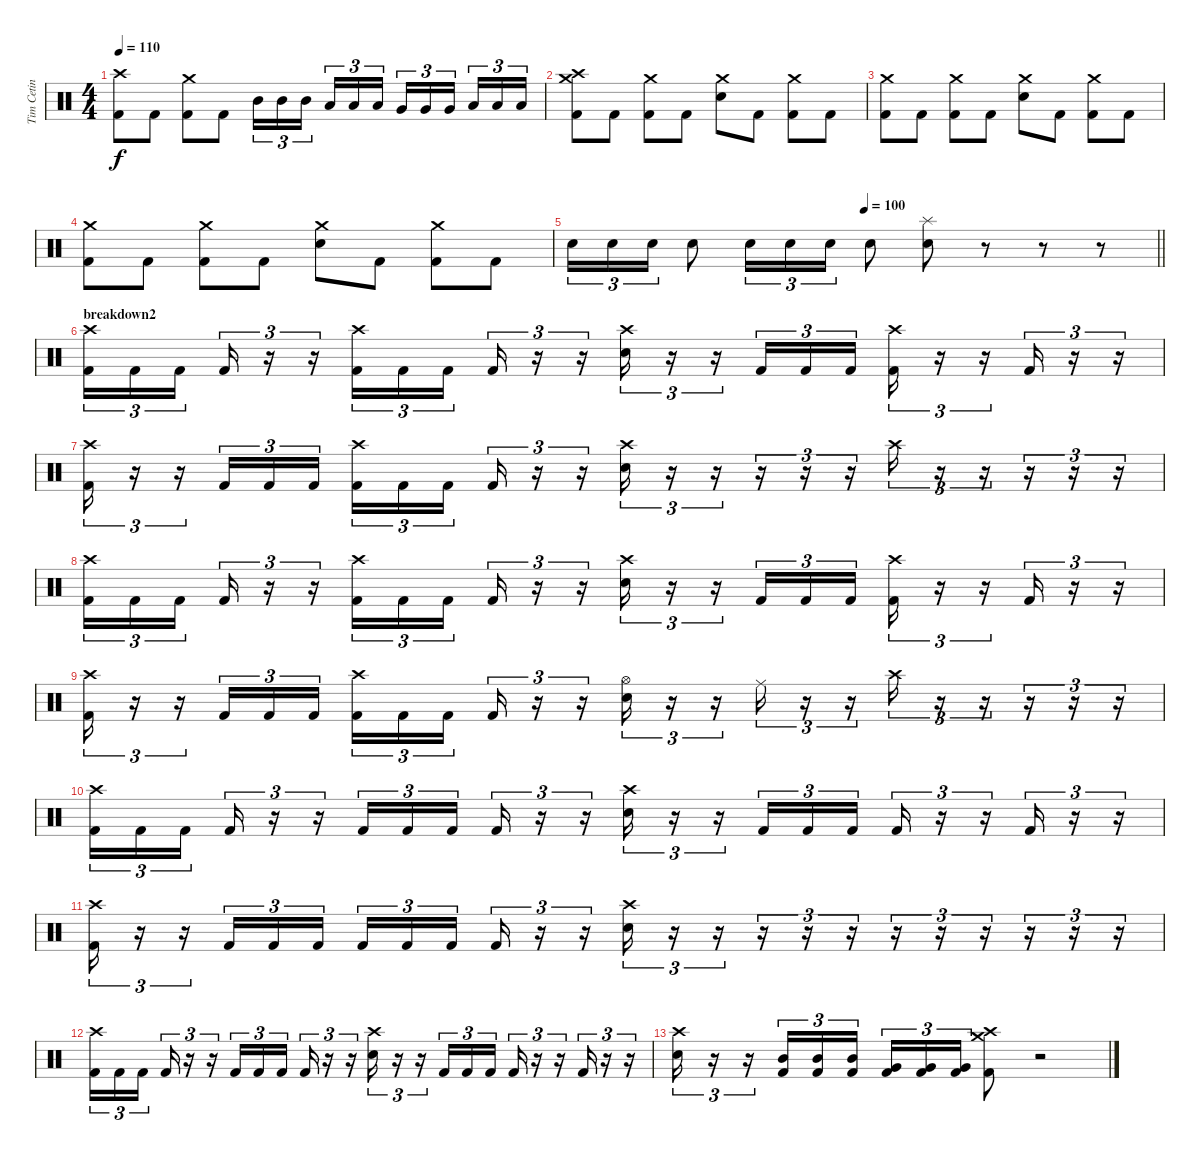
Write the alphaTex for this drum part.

\track ("Tim Cetin" "Tim Cetin") {instrument percussion}
\staff {score}
\articulation defaults
\ts (4 4)
\tempo 110
\clef neutral
\ks c
("Crash high (hit)" "Kick (hit) 2").8{dy f} "Kick (hit) 2".8 ("Crash medium (hit)" "Kick (hit) 2").8 "Kick (hit) 2".8 "Mid Tom (hit)".16{tu (3 2)} "Mid Tom (hit)".16{tu (3 2)} "Mid Tom (hit)".16{tu (3 2) beam splitsecondary} "Low Tom (hit)".16{tu (3 2)} "Low Tom (hit)".16{tu (3 2)} "Low Tom (hit)".16{tu (3 2)} "Very Low Tom (hit)".16{tu (3 2)} "Very Low Tom (hit)".16{tu (3 2)} "Very Low Tom (hit)".16{tu (3 2) beam splitsecondary} "Low Floor Tom (hit)".16{tu (3 2)} "Low Floor Tom (hit)".16{tu (3 2)} "Low Floor Tom (hit)".16{tu (3 2)} |
("Crash high (hit)" "Crash medium (hit)" "Kick (hit) 2").8 "Kick (hit) 2".8 ("Crash medium (hit)" "Kick (hit) 2").8 "Kick (hit) 2".8 ("Crash medium (hit)" "Snare (hit) 2").8 "Kick (hit) 2".8 ("Crash medium (hit)" "Kick (hit) 2").8 "Kick (hit) 2".8 |
("Crash medium (hit)" "Kick (hit) 2").8 "Kick (hit) 2".8 ("Crash medium (hit)" "Kick (hit) 2").8 "Kick (hit) 2".8 ("Crash medium (hit)" "Snare (hit) 2").8 "Kick (hit) 2".8 ("Crash medium (hit)" "Kick (hit) 2").8 "Kick (hit) 2".8 |
("Crash medium (hit)" "Kick (hit) 2").8 "Kick (hit) 2".8 ("Crash medium (hit)" "Kick (hit) 2").8 "Kick (hit) 2".8 ("Crash medium (hit)" "Snare (hit) 2").8 "Kick (hit) 2".8 ("Crash medium (hit)" "Kick (hit) 2").8 "Kick (hit) 2".8 |
\tempo (100 0.5)
\barLineRight lightlight "Snare (hit) 2".16{tu (3 2)} "Snare (hit) 2".16{tu (3 2)} "Snare (hit) 2".16{tu (3 2)} "Snare (hit) 2".8 "Snare (hit) 2".16{tu (3 2)} "Snare (hit) 2".16{tu (3 2)} "Snare (hit) 2".16{tu (3 2)} "Snare (hit) 2".8
("Splash (hit)" "Snare (hit) 2").8 r.8 r.8 r.8 |
\section ("" "breakdown2")
("Crash high (hit)" "Kick (hit) 2").16{tu (3 2)} "Kick (hit) 2".16{tu (3 2)} "Kick (hit) 2".16{tu (3 2) beam splitsecondary} "Kick (hit) 2".16{tu (3 2)} r.16{tu (3 2)} r.16{tu (3 2)} ("Crash high (hit)" "Kick (hit) 2").16{tu (3 2)} "Kick (hit) 2".16{tu (3 2)} "Kick (hit) 2".16{tu (3 2) beam splitsecondary} "Kick (hit) 2".16{tu (3 2)} r.16{tu (3 2)} r.16{tu (3 2)} ("Crash high (hit)" "Snare (hit) 2").16{tu (3 2)} r.16{tu (3 2)} r.16{tu (3 2)} "Kick (hit) 2".16{tu (3 2)} "Kick (hit) 2".16{tu (3 2)} "Kick (hit) 2".16{tu (3 2)} ("Crash high (hit)" "Kick (hit) 2").16{tu (3 2)} r.16{tu (3 2)} r.16{tu (3 2)} "Kick (hit) 2".16{tu (3 2)} r.16{tu (3 2)} r.16{tu (3 2)} |
("Crash high (hit)" "Kick (hit) 2").16{tu (3 2)} r.16{tu (3 2)} r.16{tu (3 2)} "Kick (hit) 2".16{tu (3 2)} "Kick (hit) 2".16{tu (3 2)} "Kick (hit) 2".16{tu (3 2)} ("Crash high (hit)" "Kick (hit) 2").16{tu (3 2)} "Kick (hit) 2".16{tu (3 2)} "Kick (hit) 2".16{tu (3 2) beam splitsecondary} "Kick (hit) 2".16{tu (3 2)} r.16{tu (3 2)} r.16{tu (3 2)} ("Crash high (hit)" "Snare (hit) 2").16{tu (3 2)} r.16{tu (3 2)} r.16{tu (3 2)} r.16{tu (3 2)} r.16{tu (3 2)} r.16{tu (3 2)} "Crash high (hit)".16{tu (3 2)} r.16{tu (3 2)} r.16{tu (3 2)} r.16{tu (3 2)} r.16{tu (3 2)} r.16{tu (3 2)} |
("Crash high (hit)" "Kick (hit) 2").16{tu (3 2)} "Kick (hit) 2".16{tu (3 2)} "Kick (hit) 2".16{tu (3 2) beam splitsecondary} "Kick (hit) 2".16{tu (3 2)} r.16{tu (3 2)} r.16{tu (3 2)} ("Crash high (hit)" "Kick (hit) 2").16{tu (3 2)} "Kick (hit) 2".16{tu (3 2)} "Kick (hit) 2".16{tu (3 2) beam splitsecondary} "Kick (hit) 2".16{tu (3 2)} r.16{tu (3 2)} r.16{tu (3 2)} ("Crash high (hit)" "Snare (hit) 2").16{tu (3 2)} r.16{tu (3 2)} r.16{tu (3 2)} "Kick (hit) 2".16{tu (3 2)} "Kick (hit) 2".16{tu (3 2)} "Kick (hit) 2".16{tu (3 2)} ("Crash high (hit)" "Kick (hit) 2").16{tu (3 2)} r.16{tu (3 2)} r.16{tu (3 2)} "Kick (hit) 2".16{tu (3 2)} r.16{tu (3 2)} r.16{tu (3 2)} |
("Crash high (hit)" "Kick (hit) 2").16{tu (3 2)} r.16{tu (3 2)} r.16{tu (3 2)} "Kick (hit) 2".16{tu (3 2)} "Kick (hit) 2".16{tu (3 2)} "Kick (hit) 2".16{tu (3 2)} ("Crash high (hit)" "Kick (hit) 2").16{tu (3 2)} "Kick (hit) 2".16{tu (3 2)} "Kick (hit) 2".16{tu (3 2) beam splitsecondary} "Kick (hit) 2".16{tu (3 2)} r.16{tu (3 2)} r.16{tu (3 2)} ("Hi-Hat (open)" "Snare (hit) 2").16{tu (3 2)} r.16{tu (3 2)} r.16{tu (3 2)} "Ride (middle)".16{tu (3 2)} r.16{tu (3 2)} r.16{tu (3 2)} "Crash high (hit)".16{tu (3 2)} r.16{tu (3 2)} r.16{tu (3 2)} r.16{tu (3 2)} r.16{tu (3 2)} r.16{tu (3 2)} |
("Crash high (hit)" "Kick (hit) 2").16{tu (3 2)} "Kick (hit) 2".16{tu (3 2)} "Kick (hit) 2".16{tu (3 2) beam splitsecondary} "Kick (hit) 2".16{tu (3 2)} r.16{tu (3 2)} r.16{tu (3 2)} "Kick (hit) 2".16{tu (3 2)} "Kick (hit) 2".16{tu (3 2)} "Kick (hit) 2".16{tu (3 2) beam splitsecondary} "Kick (hit) 2".16{tu (3 2)} r.16{tu (3 2)} r.16{tu (3 2)} ("Crash high (hit)" "Snare (hit) 2").16{tu (3 2)} r.16{tu (3 2)} r.16{tu (3 2)} "Kick (hit) 2".16{tu (3 2)} "Kick (hit) 2".16{tu (3 2)} "Kick (hit) 2".16{tu (3 2)} "Kick (hit) 2".16{tu (3 2)} r.16{tu (3 2)} r.16{tu (3 2)} "Kick (hit) 2".16{tu (3 2)} r.16{tu (3 2)} r.16{tu (3 2)} |
("Crash high (hit)" "Kick (hit) 2").16{tu (3 2)} r.16{tu (3 2)} r.16{tu (3 2)} "Kick (hit) 2".16{tu (3 2)} "Kick (hit) 2".16{tu (3 2)} "Kick (hit) 2".16{tu (3 2)} "Kick (hit) 2".16{tu (3 2)} "Kick (hit) 2".16{tu (3 2)} "Kick (hit) 2".16{tu (3 2) beam splitsecondary} "Kick (hit) 2".16{tu (3 2)} r.16{tu (3 2)} r.16{tu (3 2)} ("Crash high (hit)" "Snare (hit) 2").16{tu (3 2)} r.16{tu (3 2)} r.16{tu (3 2)} r.16{tu (3 2)} r.16{tu (3 2)} r.16{tu (3 2)} r.16{tu (3 2)} r.16{tu (3 2)} r.16{tu (3 2)} r.16{tu (3 2)} r.16{tu (3 2)} r.16{tu (3 2)} |
("Crash high (hit)" "Kick (hit) 2").16{tu (3 2)} "Kick (hit) 2".16{tu (3 2)} "Kick (hit) 2".16{tu (3 2) beam splitsecondary} "Kick (hit) 2".16{tu (3 2)} r.16{tu (3 2)} r.16{tu (3 2)} "Kick (hit) 2".16{tu (3 2)} "Kick (hit) 2".16{tu (3 2)} "Kick (hit) 2".16{tu (3 2) beam splitsecondary} "Kick (hit) 2".16{tu (3 2)} r.16{tu (3 2)} r.16{tu (3 2)} ("Crash high (hit)" "Snare (hit) 2").16{tu (3 2)} r.16{tu (3 2)} r.16{tu (3 2)} "Kick (hit) 2".16{tu (3 2)} "Kick (hit) 2".16{tu (3 2)} "Kick (hit) 2".16{tu (3 2)} "Kick (hit) 2".16{tu (3 2)} r.16{tu (3 2)} r.16{tu (3 2)} "Kick (hit) 2".16{tu (3 2)} r.16{tu (3 2)} r.16{tu (3 2)} |
("Crash high (hit)" "Snare (hit) 2").16{tu (3 2)} r.16{tu (3 2)} r.16{tu (3 2)} ("Mid Tom (hit)" "Kick (hit) 2").16{tu (3 2)} ("Mid Tom (hit)" "Kick (hit) 2").16{tu (3 2)} ("Mid Tom (hit)" "Kick (hit) 2").16{tu (3 2)} ("Very Low Tom (hit)" "Kick (hit) 2").16{tu (3 2)} ("Very Low Tom (hit)" "Kick (hit) 2").16{tu (3 2)} ("Very Low Tom (hit)" "Kick (hit) 2").16{tu (3 2)} ("Crash high (hit)" "Crash medium (hit)" "Kick (hit) 2").8 r.2
